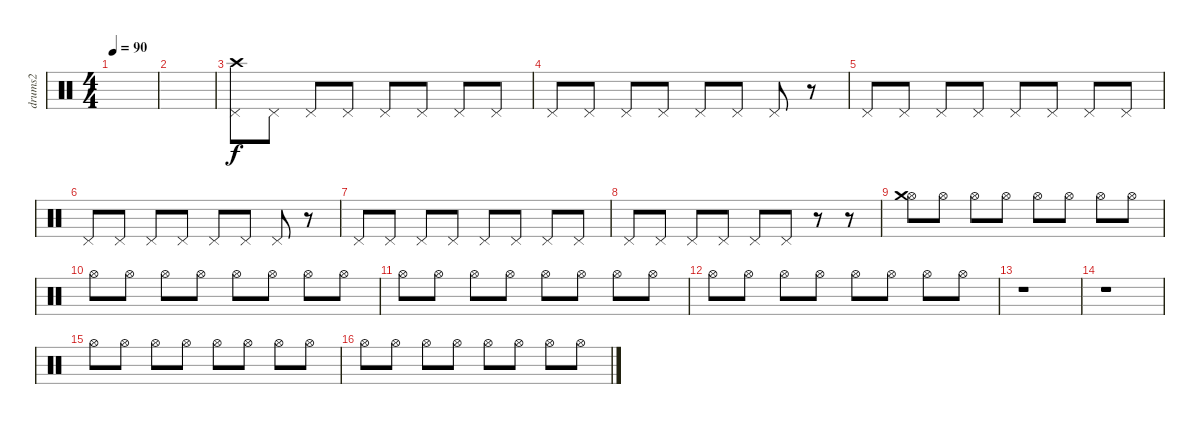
\track ("drums2" "drums2") {instrument percussion}
\staff {score}
\articulation defaults
\ts (4 4)
\tempo 90
\clef neutral
\ks c
|
|
("Pedal Hi-Hat (hit)" "Crash high (hit)").8 "Pedal Hi-Hat (hit)".8 "Pedal Hi-Hat (hit)".8 "Pedal Hi-Hat (hit)".8 "Pedal Hi-Hat (hit)".8 "Pedal Hi-Hat (hit)".8 "Pedal Hi-Hat (hit)".8 "Pedal Hi-Hat (hit)".8 |
"Pedal Hi-Hat (hit)".8 "Pedal Hi-Hat (hit)".8 "Pedal Hi-Hat (hit)".8 "Pedal Hi-Hat (hit)".8 "Pedal Hi-Hat (hit)".8 "Pedal Hi-Hat (hit)".8 "Pedal Hi-Hat (hit)".8 r.8 |
"Pedal Hi-Hat (hit)".8 "Pedal Hi-Hat (hit)".8 "Pedal Hi-Hat (hit)".8 "Pedal Hi-Hat (hit)".8 "Pedal Hi-Hat (hit)".8 "Pedal Hi-Hat (hit)".8 "Pedal Hi-Hat (hit)".8 "Pedal Hi-Hat (hit)".8 |
"Pedal Hi-Hat (hit)".8 "Pedal Hi-Hat (hit)".8 "Pedal Hi-Hat (hit)".8 "Pedal Hi-Hat (hit)".8 "Pedal Hi-Hat (hit)".8 "Pedal Hi-Hat (hit)".8 "Pedal Hi-Hat (hit)".8 r.8 |
"Pedal Hi-Hat (hit)".8 "Pedal Hi-Hat (hit)".8 "Pedal Hi-Hat (hit)".8 "Pedal Hi-Hat (hit)".8 "Pedal Hi-Hat (hit)".8 "Pedal Hi-Hat (hit)".8 "Pedal Hi-Hat (hit)".8 "Pedal Hi-Hat (hit)".8 |
"Pedal Hi-Hat (hit)".8 "Pedal Hi-Hat (hit)".8 "Pedal Hi-Hat (hit)".8 "Pedal Hi-Hat (hit)".8 "Pedal Hi-Hat (hit)".8 "Pedal Hi-Hat (hit)".8 r.8 r.8 |
("Hi-Hat (open)" "Crash medium (hit)").8 "Hi-Hat (open)".8 "Hi-Hat (open)".8 "Hi-Hat (open)".8 "Hi-Hat (open)".8 "Hi-Hat (open)".8 "Hi-Hat (open)".8 "Hi-Hat (open)".8 |
"Hi-Hat (open)".8 "Hi-Hat (open)".8 "Hi-Hat (open)".8 "Hi-Hat (open)".8 "Hi-Hat (open)".8 "Hi-Hat (open)".8 "Hi-Hat (open)".8 "Hi-Hat (open)".8 |
"Hi-Hat (open)".8 "Hi-Hat (open)".8 "Hi-Hat (open)".8 "Hi-Hat (open)".8 "Hi-Hat (open)".8 "Hi-Hat (open)".8 "Hi-Hat (open)".8 "Hi-Hat (open)".8 |
"Hi-Hat (open)".8 "Hi-Hat (open)".8 "Hi-Hat (open)".8 "Hi-Hat (open)".8 "Hi-Hat (open)".8 "Hi-Hat (open)".8 "Hi-Hat (open)".8 "Hi-Hat (open)".8 |
r.1 |
r.1 |
"Hi-Hat (open)".8 "Hi-Hat (open)".8 "Hi-Hat (open)".8 "Hi-Hat (open)".8 "Hi-Hat (open)".8 "Hi-Hat (open)".8 "Hi-Hat (open)".8 "Hi-Hat (open)".8 |
"Hi-Hat (open)".8 "Hi-Hat (open)".8 "Hi-Hat (open)".8 "Hi-Hat (open)".8 "Hi-Hat (open)".8 "Hi-Hat (open)".8 "Hi-Hat (open)".8 "Hi-Hat (open)".8
